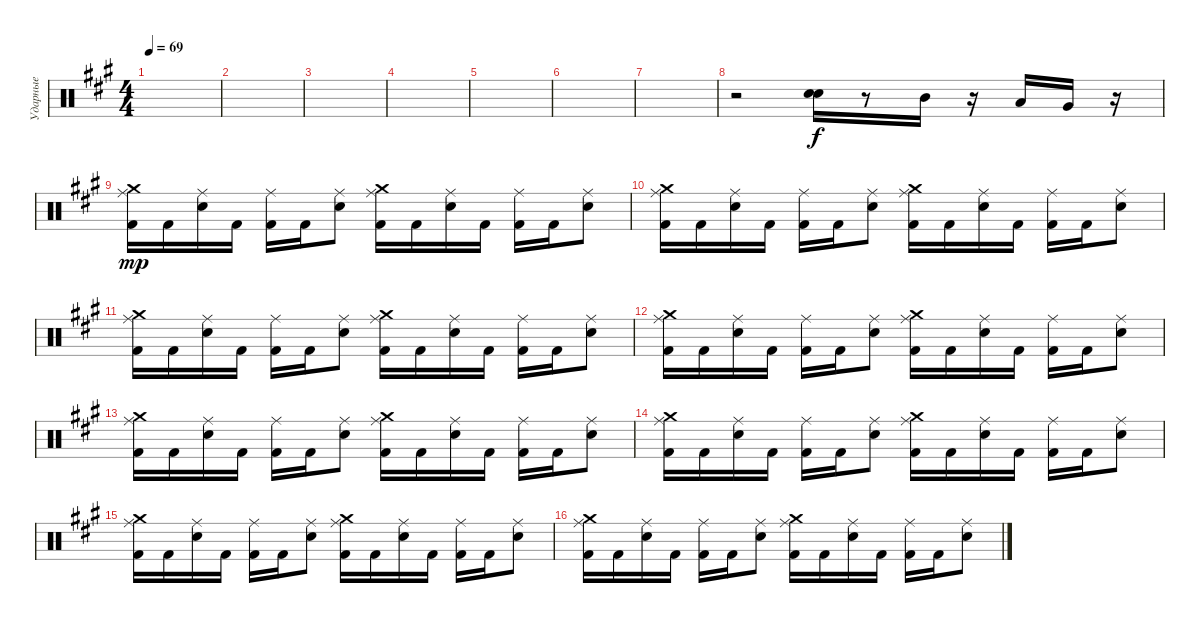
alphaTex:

\track ("Ударные" "Ударные") {instrument percussion}
\staff {score}
\articulation defaults
\ts (4 4)
\tempo 69
\clef neutral
\ks a
|
|
|
|
|
|
|
r.2 ("Electric Snare (hit)" "Electric Snare (hit)").16 r.8 "Mid Tom (hit)".16 r.16 "Low Tom (hit)".16 "Very Low Tom (hit)".16 r.16 |
("Kick (hit) 2" "Ride (middle)" "Crash medium (hit)").16{dy mp} "Kick (hit) 2".16 ("Electric Snare (hit)" "Ride (middle)").16 "Kick (hit) 2".16 ("Kick (hit) 2" "Ride (middle)").16 "Kick (hit) 2".16 ("Electric Snare (hit)" "Ride (middle)").8 ("Kick (hit) 2" "Ride (middle)" "Crash medium (hit)").16 "Kick (hit) 2".16 ("Electric Snare (hit)" "Ride (middle)").16 "Kick (hit) 2".16 ("Kick (hit) 2" "Ride (middle)").16 "Kick (hit) 2".16 ("Electric Snare (hit)" "Ride (middle)").8 |
("Kick (hit) 2" "Ride (middle)" "Crash medium (hit)").16 "Kick (hit) 2".16 ("Electric Snare (hit)" "Ride (middle)").16 "Kick (hit) 2".16 ("Kick (hit) 2" "Ride (middle)").16 "Kick (hit) 2".16 ("Electric Snare (hit)" "Ride (middle)").8 ("Kick (hit) 2" "Ride (middle)" "Crash medium (hit)").16 "Kick (hit) 2".16 ("Electric Snare (hit)" "Ride (middle)").16 "Kick (hit) 2".16 ("Kick (hit) 2" "Ride (middle)").16 "Kick (hit) 2".16 ("Electric Snare (hit)" "Ride (middle)").8 |
("Kick (hit) 2" "Ride (middle)" "Crash medium (hit)").16 "Kick (hit) 2".16 ("Electric Snare (hit)" "Ride (middle)").16 "Kick (hit) 2".16 ("Kick (hit) 2" "Ride (middle)").16 "Kick (hit) 2".16 ("Electric Snare (hit)" "Ride (middle)").8 ("Kick (hit) 2" "Ride (middle)" "Crash medium (hit)").16 "Kick (hit) 2".16 ("Electric Snare (hit)" "Ride (middle)").16 "Kick (hit) 2".16 ("Kick (hit) 2" "Ride (middle)").16 "Kick (hit) 2".16 ("Electric Snare (hit)" "Ride (middle)").8 |
("Kick (hit) 2" "Ride (middle)" "Crash medium (hit)").16 "Kick (hit) 2".16 ("Electric Snare (hit)" "Ride (middle)").16 "Kick (hit) 2".16 ("Kick (hit) 2" "Ride (middle)").16 "Kick (hit) 2".16 ("Electric Snare (hit)" "Ride (middle)").8 ("Kick (hit) 2" "Ride (middle)" "Crash medium (hit)").16 "Kick (hit) 2".16 ("Electric Snare (hit)" "Ride (middle)").16 "Kick (hit) 2".16 ("Kick (hit) 2" "Ride (middle)").16 "Kick (hit) 2".16 ("Electric Snare (hit)" "Ride (middle)").8 |
("Kick (hit) 2" "Ride (middle)" "Crash medium (hit)").16 "Kick (hit) 2".16 ("Electric Snare (hit)" "Ride (middle)").16 "Kick (hit) 2".16 ("Kick (hit) 2" "Ride (middle)").16 "Kick (hit) 2".16 ("Electric Snare (hit)" "Ride (middle)").8 ("Kick (hit) 2" "Ride (middle)" "Crash medium (hit)").16 "Kick (hit) 2".16 ("Electric Snare (hit)" "Ride (middle)").16 "Kick (hit) 2".16 ("Kick (hit) 2" "Ride (middle)").16 "Kick (hit) 2".16 ("Electric Snare (hit)" "Ride (middle)").8 |
("Kick (hit) 2" "Ride (middle)" "Crash medium (hit)").16 "Kick (hit) 2".16 ("Electric Snare (hit)" "Ride (middle)").16 "Kick (hit) 2".16 ("Kick (hit) 2" "Ride (middle)").16 "Kick (hit) 2".16 ("Electric Snare (hit)" "Ride (middle)").8 ("Kick (hit) 2" "Ride (middle)" "Crash medium (hit)").16 "Kick (hit) 2".16 ("Electric Snare (hit)" "Ride (middle)").16 "Kick (hit) 2".16 ("Kick (hit) 2" "Ride (middle)").16 "Kick (hit) 2".16 ("Electric Snare (hit)" "Ride (middle)").8 |
("Kick (hit) 2" "Ride (middle)" "Crash medium (hit)").16 "Kick (hit) 2".16 ("Electric Snare (hit)" "Ride (middle)").16 "Kick (hit) 2".16 ("Kick (hit) 2" "Ride (middle)").16 "Kick (hit) 2".16 ("Electric Snare (hit)" "Ride (middle)").8 ("Kick (hit) 2" "Ride (middle)" "Crash medium (hit)").16 "Kick (hit) 2".16 ("Electric Snare (hit)" "Ride (middle)").16 "Kick (hit) 2".16 ("Kick (hit) 2" "Ride (middle)").16 "Kick (hit) 2".16 ("Electric Snare (hit)" "Ride (middle)").8 |
("Kick (hit) 2" "Ride (middle)" "Crash medium (hit)").16 "Kick (hit) 2".16 ("Electric Snare (hit)" "Ride (middle)").16 "Kick (hit) 2".16 ("Kick (hit) 2" "Ride (middle)").16 "Kick (hit) 2".16 ("Electric Snare (hit)" "Ride (middle)").8 ("Kick (hit) 2" "Ride (middle)" "Crash medium (hit)").16 "Kick (hit) 2".16 ("Electric Snare (hit)" "Ride (middle)").16 "Kick (hit) 2".16 ("Kick (hit) 2" "Ride (middle)").16 "Kick (hit) 2".16 ("Electric Snare (hit)" "Ride (middle)").8
